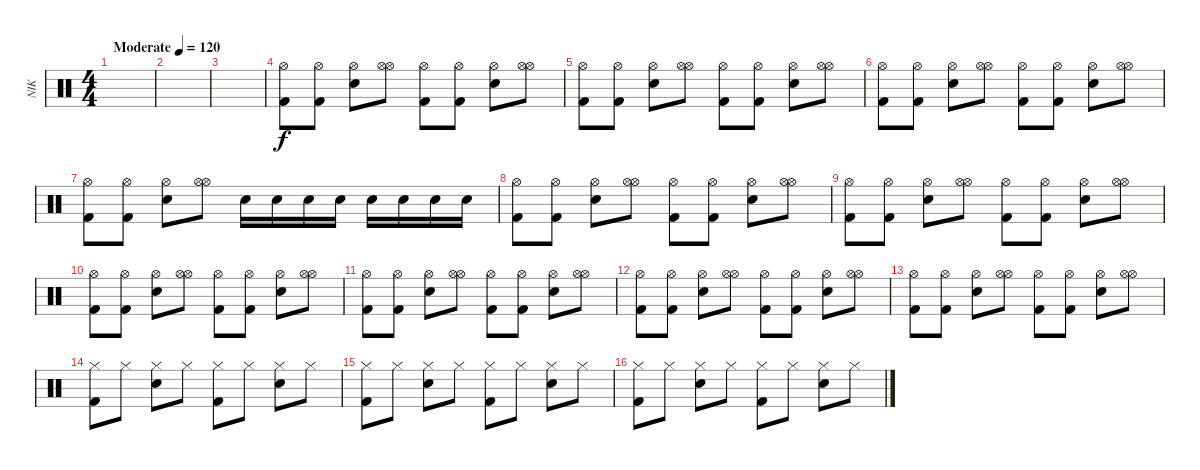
\track ("NIK" "NIK") {instrument percussion}
\staff {score}
\articulation defaults
\ts (4 4)
\tempo (120 "Moderate")
\clef neutral
\ks c
|
|
|
("Kick (hit) 2" "Hi-Hat (open)").8 ("Kick (hit) 2" "Hi-Hat (open)").8 ("Electric Snare (hit)" "Hi-Hat (open)").8 ("Hi-Hat (open)" "Hi-Hat (open)").8 ("Kick (hit) 2" "Hi-Hat (open)").8 ("Kick (hit) 2" "Hi-Hat (open)").8 ("Electric Snare (hit)" "Hi-Hat (open)").8 ("Hi-Hat (open)" "Hi-Hat (open)").8 |
("Kick (hit) 2" "Hi-Hat (open)").8 ("Kick (hit) 2" "Hi-Hat (open)").8 ("Electric Snare (hit)" "Hi-Hat (open)").8 ("Hi-Hat (open)" "Hi-Hat (open)").8 ("Kick (hit) 2" "Hi-Hat (open)").8 ("Kick (hit) 2" "Hi-Hat (open)").8 ("Electric Snare (hit)" "Hi-Hat (open)").8 ("Hi-Hat (open)" "Hi-Hat (open)").8 |
("Kick (hit) 2" "Hi-Hat (open)").8 ("Kick (hit) 2" "Hi-Hat (open)").8 ("Electric Snare (hit)" "Hi-Hat (open)").8 ("Hi-Hat (open)" "Hi-Hat (open)").8 ("Kick (hit) 2" "Hi-Hat (open)").8 ("Kick (hit) 2" "Hi-Hat (open)").8 ("Electric Snare (hit)" "Hi-Hat (open)").8 ("Hi-Hat (open)" "Hi-Hat (open)").8 |
("Kick (hit) 2" "Hi-Hat (open)").8 ("Kick (hit) 2" "Hi-Hat (open)").8 ("Electric Snare (hit)" "Hi-Hat (open)").8 ("Hi-Hat (open)" "Hi-Hat (open)").8 "Electric Snare (hit)".16 "Electric Snare (hit)".16 "Electric Snare (hit)".16 "Electric Snare (hit)".16 "Electric Snare (hit)".16 "Electric Snare (hit)".16 "Electric Snare (hit)".16 "Electric Snare (hit)".16 |
("Kick (hit) 2" "Hi-Hat (open)").8 ("Kick (hit) 2" "Hi-Hat (open)").8 ("Electric Snare (hit)" "Hi-Hat (open)").8 ("Hi-Hat (open)" "Hi-Hat (open)").8 ("Kick (hit) 2" "Hi-Hat (open)").8 ("Kick (hit) 2" "Hi-Hat (open)").8 ("Electric Snare (hit)" "Hi-Hat (open)").8 ("Hi-Hat (open)" "Hi-Hat (open)").8 |
("Kick (hit) 2" "Hi-Hat (open)").8 ("Kick (hit) 2" "Hi-Hat (open)").8 ("Electric Snare (hit)" "Hi-Hat (open)").8 ("Hi-Hat (open)" "Hi-Hat (open)").8 ("Kick (hit) 2" "Hi-Hat (open)").8 ("Kick (hit) 2" "Hi-Hat (open)").8 ("Electric Snare (hit)" "Hi-Hat (open)").8 ("Hi-Hat (open)" "Hi-Hat (open)").8 |
("Kick (hit) 2" "Hi-Hat (open)").8 ("Kick (hit) 2" "Hi-Hat (open)").8 ("Electric Snare (hit)" "Hi-Hat (open)").8 ("Hi-Hat (open)" "Hi-Hat (open)").8 ("Kick (hit) 2" "Hi-Hat (open)").8 ("Kick (hit) 2" "Hi-Hat (open)").8 ("Electric Snare (hit)" "Hi-Hat (open)").8 ("Hi-Hat (open)" "Hi-Hat (open)").8 |
("Kick (hit) 2" "Hi-Hat (open)").8 ("Kick (hit) 2" "Hi-Hat (open)").8 ("Electric Snare (hit)" "Hi-Hat (open)").8 ("Hi-Hat (open)" "Hi-Hat (open)").8 ("Kick (hit) 2" "Hi-Hat (open)").8 ("Kick (hit) 2" "Hi-Hat (open)").8 ("Electric Snare (hit)" "Hi-Hat (open)").8 ("Hi-Hat (open)" "Hi-Hat (open)").8 |
("Kick (hit) 2" "Hi-Hat (open)").8 ("Kick (hit) 2" "Hi-Hat (open)").8 ("Electric Snare (hit)" "Hi-Hat (open)").8 ("Hi-Hat (open)" "Hi-Hat (open)").8 ("Kick (hit) 2" "Hi-Hat (open)").8 ("Kick (hit) 2" "Hi-Hat (open)").8 ("Electric Snare (hit)" "Hi-Hat (open)").8 ("Hi-Hat (open)" "Hi-Hat (open)").8 |
("Kick (hit) 2" "Hi-Hat (open)").8 ("Kick (hit) 2" "Hi-Hat (open)").8 ("Electric Snare (hit)" "Hi-Hat (open)").8 ("Hi-Hat (open)" "Hi-Hat (open)").8 ("Kick (hit) 2" "Hi-Hat (open)").8 ("Kick (hit) 2" "Hi-Hat (open)").8 ("Electric Snare (hit)" "Hi-Hat (open)").8 ("Hi-Hat (open)" "Hi-Hat (open)").8 |
("Hi-Hat (closed)" "Kick (hit) 2").8 "Hi-Hat (closed)".8 ("Hi-Hat (closed)" "Electric Snare (hit)").8 "Hi-Hat (closed)".8 ("Hi-Hat (closed)" "Kick (hit) 2").8 "Hi-Hat (closed)".8 ("Hi-Hat (closed)" "Electric Snare (hit)").8 "Hi-Hat (closed)".8 |
("Hi-Hat (closed)" "Kick (hit) 2").8 "Hi-Hat (closed)".8 ("Hi-Hat (closed)" "Electric Snare (hit)").8 "Hi-Hat (closed)".8 ("Hi-Hat (closed)" "Kick (hit) 2").8 "Hi-Hat (closed)".8 ("Hi-Hat (closed)" "Electric Snare (hit)").8 "Hi-Hat (closed)".8 |
("Hi-Hat (closed)" "Kick (hit) 2").8 "Hi-Hat (closed)".8 ("Hi-Hat (closed)" "Electric Snare (hit)").8 "Hi-Hat (closed)".8 ("Hi-Hat (closed)" "Kick (hit) 2").8 "Hi-Hat (closed)".8 ("Hi-Hat (closed)" "Electric Snare (hit)").8 "Hi-Hat (closed)".8
